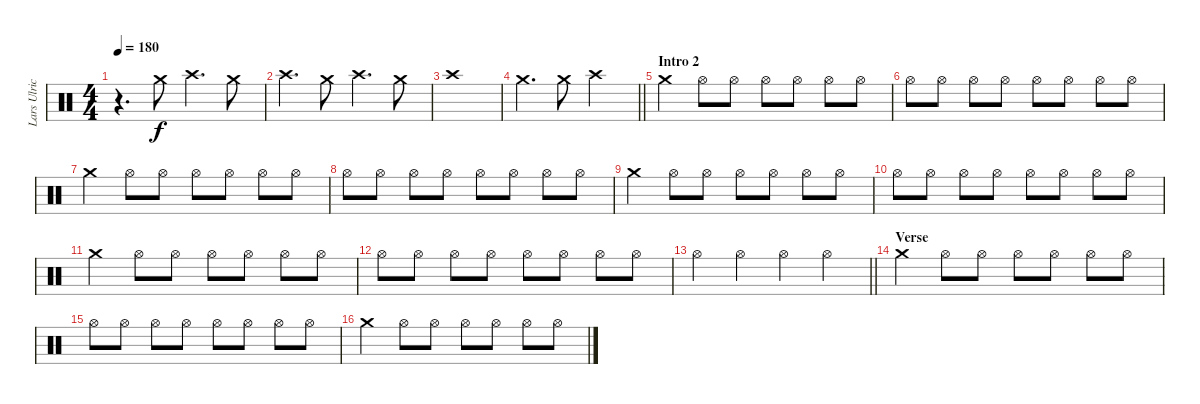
\track ("Lars Ulrich" "Lars Ulric") {instrument percussion}
\staff {score}
\articulation defaults
\ts (4 4)
\tempo 180
\clef neutral
\ks c
r.4{d dy f} "Crash medium (hit)".8 "Crash high (hit)".4{d} "Crash medium (hit)".8 |
"Crash high (hit)".4{d} "Crash medium (hit)".8 "Crash high (hit)".4{d} "Crash medium (hit)".8 |
"Crash high (hit)".1 |
\barLineRight lightlight "Crash medium (hit)".4{d} "Crash medium (hit)".8 "Crash high (hit)".2
|
\section ("" "Intro 2")
"Crash medium (hit)".4 "Hi-Hat (open)".8 "Hi-Hat (open)".8 "Hi-Hat (open)".8 "Hi-Hat (open)".8 "Hi-Hat (open)".8 "Hi-Hat (open)".8 |
"Hi-Hat (open)".8 "Hi-Hat (open)".8 "Hi-Hat (open)".8 "Hi-Hat (open)".8 "Hi-Hat (open)".8 "Hi-Hat (open)".8 "Hi-Hat (open)".8 "Hi-Hat (open)".8 |
"Crash medium (hit)".4 "Hi-Hat (open)".8 "Hi-Hat (open)".8 "Hi-Hat (open)".8 "Hi-Hat (open)".8 "Hi-Hat (open)".8 "Hi-Hat (open)".8 |
"Hi-Hat (open)".8 "Hi-Hat (open)".8 "Hi-Hat (open)".8 "Hi-Hat (open)".8 "Hi-Hat (open)".8 "Hi-Hat (open)".8 "Hi-Hat (open)".8 "Hi-Hat (open)".8 |
"Crash medium (hit)".4 "Hi-Hat (open)".8 "Hi-Hat (open)".8 "Hi-Hat (open)".8 "Hi-Hat (open)".8 "Hi-Hat (open)".8 "Hi-Hat (open)".8 |
"Hi-Hat (open)".8 "Hi-Hat (open)".8 "Hi-Hat (open)".8 "Hi-Hat (open)".8 "Hi-Hat (open)".8 "Hi-Hat (open)".8 "Hi-Hat (open)".8 "Hi-Hat (open)".8 |
"Crash medium (hit)".4 "Hi-Hat (open)".8 "Hi-Hat (open)".8 "Hi-Hat (open)".8 "Hi-Hat (open)".8 "Hi-Hat (open)".8 "Hi-Hat (open)".8 |
"Hi-Hat (open)".8 "Hi-Hat (open)".8 "Hi-Hat (open)".8 "Hi-Hat (open)".8 "Hi-Hat (open)".8 "Hi-Hat (open)".8 "Hi-Hat (open)".8 "Hi-Hat (open)".8 |
\barLineRight lightlight "Hi-Hat (open)".4 "Hi-Hat (open)".4 "Hi-Hat (open)".4 "Hi-Hat (open)".4
|
\section ("" "Verse")
"Crash medium (hit)".4 "Hi-Hat (open)".8 "Hi-Hat (open)".8 "Hi-Hat (open)".8 "Hi-Hat (open)".8 "Hi-Hat (open)".8 "Hi-Hat (open)".8 |
"Hi-Hat (open)".8 "Hi-Hat (open)".8 "Hi-Hat (open)".8 "Hi-Hat (open)".8 "Hi-Hat (open)".8 "Hi-Hat (open)".8 "Hi-Hat (open)".8 "Hi-Hat (open)".8 |
"Crash medium (hit)".4 "Hi-Hat (open)".8 "Hi-Hat (open)".8 "Hi-Hat (open)".8 "Hi-Hat (open)".8 "Hi-Hat (open)".8 "Hi-Hat (open)".8
